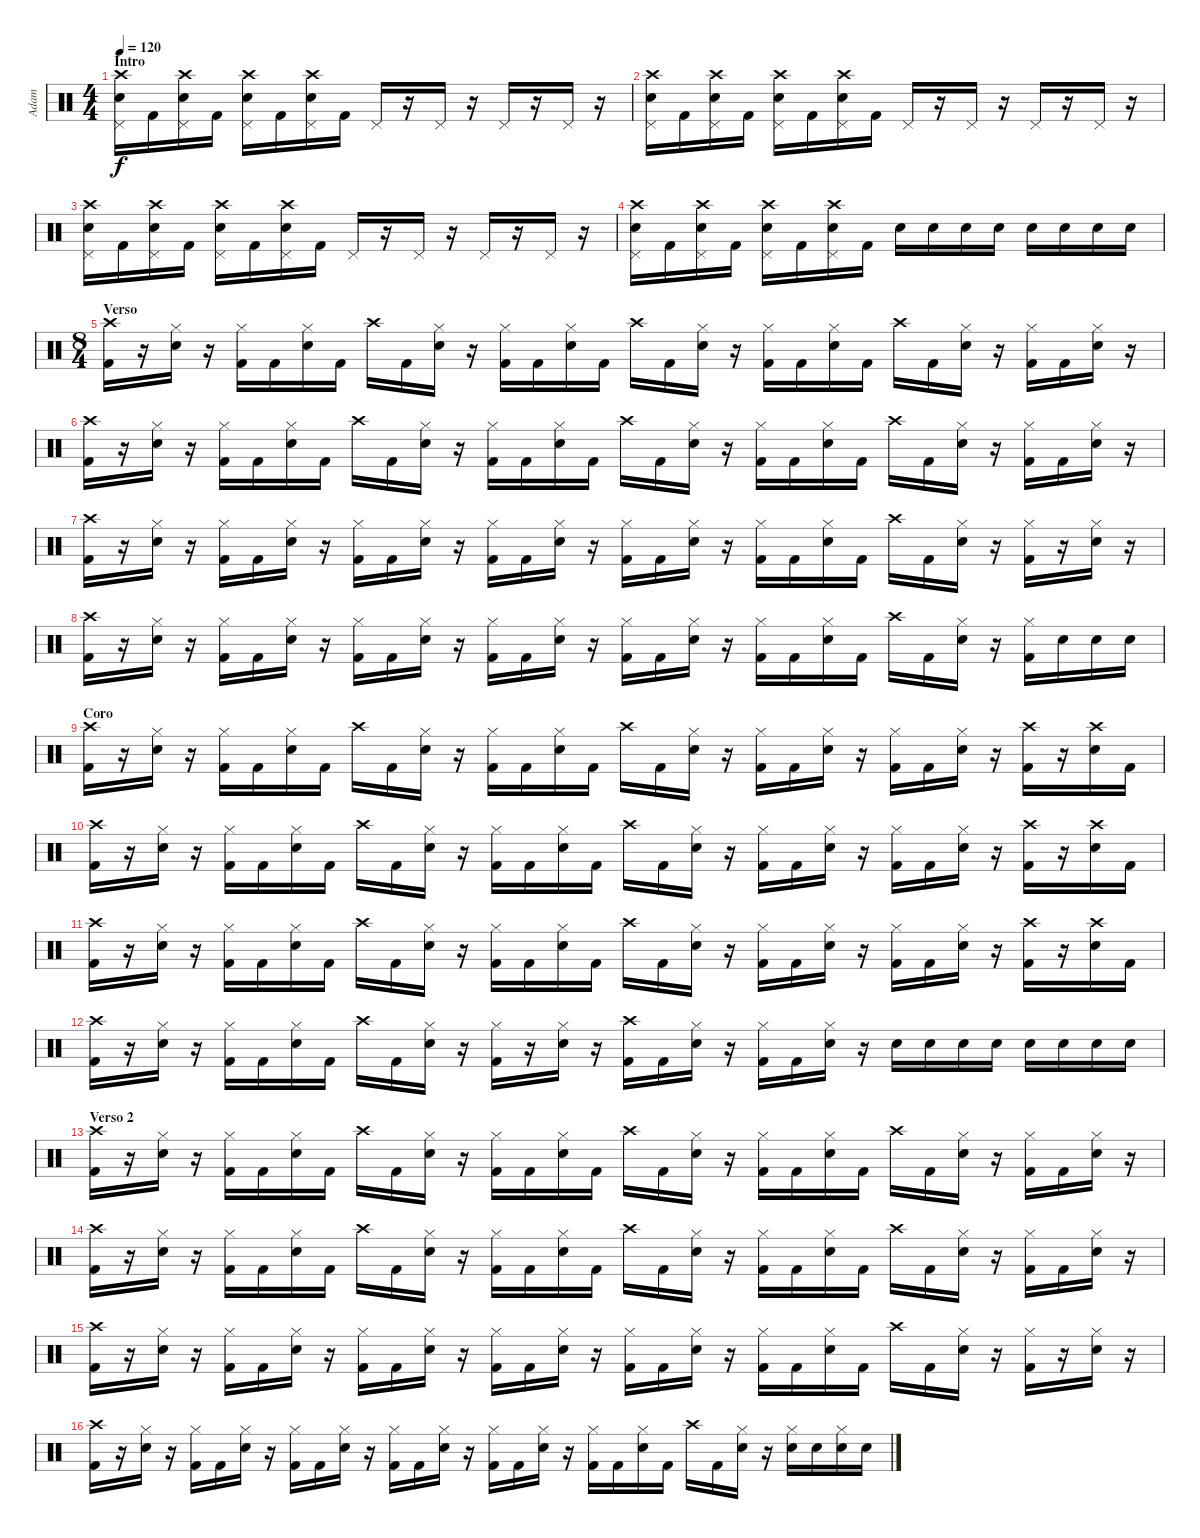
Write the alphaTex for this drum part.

\track ("Adam" "Adam") {instrument percussion}
\staff {score}
\articulation defaults
\ts (4 4)
\section ("" "Intro")
\tempo 120
\clef neutral
\ks c
("Crash high (hit)" "Snare (hit) 2" "Pedal Hi-Hat (hit)").16{dy f} "Kick (hit) 2".16 ("Crash high (hit)" "Snare (hit) 2" "Pedal Hi-Hat (hit)").16 "Kick (hit) 2".16 ("Crash high (hit)" "Snare (hit) 2" "Pedal Hi-Hat (hit)").16 "Kick (hit) 2".16 ("Crash high (hit)" "Snare (hit) 2" "Pedal Hi-Hat (hit)").16 "Kick (hit) 2".16 "Pedal Hi-Hat (hit)".16 r.16 "Pedal Hi-Hat (hit)".16 r.16 "Pedal Hi-Hat (hit)".16 r.16 "Pedal Hi-Hat (hit)".16 r.16 |
("Crash high (hit)" "Snare (hit) 2" "Pedal Hi-Hat (hit)").16 "Kick (hit) 2".16 ("Crash high (hit)" "Snare (hit) 2" "Pedal Hi-Hat (hit)").16 "Kick (hit) 2".16 ("Crash high (hit)" "Snare (hit) 2" "Pedal Hi-Hat (hit)").16 "Kick (hit) 2".16 ("Crash high (hit)" "Snare (hit) 2" "Pedal Hi-Hat (hit)").16 "Kick (hit) 2".16 "Pedal Hi-Hat (hit)".16 r.16 "Pedal Hi-Hat (hit)".16 r.16 "Pedal Hi-Hat (hit)".16 r.16 "Pedal Hi-Hat (hit)".16 r.16 |
("Crash high (hit)" "Snare (hit) 2" "Pedal Hi-Hat (hit)").16 "Kick (hit) 2".16 ("Crash high (hit)" "Snare (hit) 2" "Pedal Hi-Hat (hit)").16 "Kick (hit) 2".16 ("Crash high (hit)" "Snare (hit) 2" "Pedal Hi-Hat (hit)").16 "Kick (hit) 2".16 ("Crash high (hit)" "Snare (hit) 2" "Pedal Hi-Hat (hit)").16 "Kick (hit) 2".16 "Pedal Hi-Hat (hit)".16 r.16 "Pedal Hi-Hat (hit)".16 r.16 "Pedal Hi-Hat (hit)".16 r.16 "Pedal Hi-Hat (hit)".16 r.16 |
("Crash high (hit)" "Snare (hit) 2" "Pedal Hi-Hat (hit)").16 "Kick (hit) 2".16 ("Crash high (hit)" "Snare (hit) 2" "Pedal Hi-Hat (hit)").16 "Kick (hit) 2".16 ("Crash high (hit)" "Snare (hit) 2" "Pedal Hi-Hat (hit)").16 "Kick (hit) 2".16 ("Crash high (hit)" "Snare (hit) 2" "Pedal Hi-Hat (hit)").16 "Kick (hit) 2".16 "Snare (hit) 2".16 "Snare (hit) 2".16 "Snare (hit) 2".16 "Snare (hit) 2".16 "Snare (hit) 2".16 "Snare (hit) 2".16 "Snare (hit) 2".16 "Snare (hit) 2".16 |
\ts (8 4)
\section ("" "Verso")
("Crash high (hit)" "Kick (hit) 2").16 r.16 ("Hi-Hat (closed)" "Snare (hit) 2").16 r.16 ("Hi-Hat (closed)" "Kick (hit) 2").16 "Kick (hit) 2".16 ("Hi-Hat (closed)" "Snare (hit) 2").16 "Kick (hit) 2".16 "Crash high (hit)".16 "Kick (hit) 2".16 ("Hi-Hat (closed)" "Snare (hit) 2").16 r.16 ("Hi-Hat (closed)" "Kick (hit) 2").16 "Kick (hit) 2".16 ("Hi-Hat (closed)" "Snare (hit) 2").16 "Kick (hit) 2".16 "Crash high (hit)".16 "Kick (hit) 2".16 ("Hi-Hat (closed)" "Snare (hit) 2").16 r.16 ("Hi-Hat (closed)" "Kick (hit) 2").16 "Kick (hit) 2".16 ("Hi-Hat (closed)" "Snare (hit) 2").16 "Kick (hit) 2".16 "Crash high (hit)".16 "Kick (hit) 2".16 ("Hi-Hat (closed)" "Snare (hit) 2").16 r.16 ("Hi-Hat (closed)" "Kick (hit) 2").16 "Kick (hit) 2".16 ("Hi-Hat (closed)" "Snare (hit) 2").16 r.16 |
("Crash high (hit)" "Kick (hit) 2").16 r.16 ("Hi-Hat (closed)" "Snare (hit) 2").16 r.16 ("Hi-Hat (closed)" "Kick (hit) 2").16 "Kick (hit) 2".16 ("Hi-Hat (closed)" "Snare (hit) 2").16 "Kick (hit) 2".16 "Crash high (hit)".16 "Kick (hit) 2".16 ("Hi-Hat (closed)" "Snare (hit) 2").16 r.16 ("Hi-Hat (closed)" "Kick (hit) 2").16 "Kick (hit) 2".16 ("Hi-Hat (closed)" "Snare (hit) 2").16 "Kick (hit) 2".16 "Crash high (hit)".16 "Kick (hit) 2".16 ("Hi-Hat (closed)" "Snare (hit) 2").16 r.16 ("Hi-Hat (closed)" "Kick (hit) 2").16 "Kick (hit) 2".16 ("Hi-Hat (closed)" "Snare (hit) 2").16 "Kick (hit) 2".16 "Crash high (hit)".16 "Kick (hit) 2".16 ("Hi-Hat (closed)" "Snare (hit) 2").16 r.16 ("Hi-Hat (closed)" "Kick (hit) 2").16 "Kick (hit) 2".16 ("Hi-Hat (closed)" "Snare (hit) 2").16 r.16 |
("Crash high (hit)" "Kick (hit) 2").16 r.16 ("Hi-Hat (closed)" "Snare (hit) 2").16 r.16 ("Hi-Hat (closed)" "Kick (hit) 2").16 "Kick (hit) 2".16 ("Hi-Hat (closed)" "Snare (hit) 2").16 r.16 ("Hi-Hat (closed)" "Kick (hit) 2").16 "Kick (hit) 2".16 ("Hi-Hat (closed)" "Snare (hit) 2").16 r.16 ("Hi-Hat (closed)" "Kick (hit) 2").16 "Kick (hit) 2".16 ("Hi-Hat (closed)" "Snare (hit) 2").16 r.16 ("Hi-Hat (closed)" "Kick (hit) 2").16 "Kick (hit) 2".16 ("Hi-Hat (closed)" "Snare (hit) 2").16 r.16 ("Hi-Hat (closed)" "Kick (hit) 2").16 "Kick (hit) 2".16 ("Hi-Hat (closed)" "Snare (hit) 2").16 "Kick (hit) 2".16 "Crash high (hit)".16 "Kick (hit) 2".16 ("Hi-Hat (closed)" "Snare (hit) 2").16 r.16 ("Hi-Hat (closed)" "Kick (hit) 2").16 r.16 ("Hi-Hat (closed)" "Snare (hit) 2").16 r.16 |
("Crash high (hit)" "Kick (hit) 2").16 r.16 ("Hi-Hat (closed)" "Snare (hit) 2").16 r.16 ("Hi-Hat (closed)" "Kick (hit) 2").16 "Kick (hit) 2".16 ("Hi-Hat (closed)" "Snare (hit) 2").16 r.16 ("Hi-Hat (closed)" "Kick (hit) 2").16 "Kick (hit) 2".16 ("Hi-Hat (closed)" "Snare (hit) 2").16 r.16 ("Hi-Hat (closed)" "Kick (hit) 2").16 "Kick (hit) 2".16 ("Hi-Hat (closed)" "Snare (hit) 2").16 r.16 ("Hi-Hat (closed)" "Kick (hit) 2").16 "Kick (hit) 2".16 ("Hi-Hat (closed)" "Snare (hit) 2").16 r.16 ("Hi-Hat (closed)" "Kick (hit) 2").16 "Kick (hit) 2".16 ("Hi-Hat (closed)" "Snare (hit) 2").16 "Kick (hit) 2".16 "Crash high (hit)".16 "Kick (hit) 2".16 ("Hi-Hat (closed)" "Snare (hit) 2").16 r.16 ("Hi-Hat (closed)" "Kick (hit) 2").16 "Snare (hit) 2".16 "Snare (hit) 2".16 "Snare (hit) 2".16 |
\section ("" "Coro")
("Crash high (hit)" "Kick (hit) 2").16 r.16 ("Hi-Hat (closed)" "Snare (hit) 2").16 r.16 ("Hi-Hat (closed)" "Kick (hit) 2").16 "Kick (hit) 2".16 ("Hi-Hat (closed)" "Snare (hit) 2").16 "Kick (hit) 2".16 "Crash high (hit)".16 "Kick (hit) 2".16 ("Hi-Hat (closed)" "Snare (hit) 2").16 r.16 ("Hi-Hat (closed)" "Kick (hit) 2").16 "Kick (hit) 2".16 ("Hi-Hat (closed)" "Snare (hit) 2").16 "Kick (hit) 2".16 "Crash high (hit)".16 "Kick (hit) 2".16 ("Hi-Hat (closed)" "Snare (hit) 2").16 r.16 ("Hi-Hat (closed)" "Kick (hit) 2").16 "Kick (hit) 2".16 ("Hi-Hat (closed)" "Snare (hit) 2").16 r.16 ("Hi-Hat (closed)" "Kick (hit) 2").16 "Kick (hit) 2".16 ("Hi-Hat (closed)" "Snare (hit) 2").16 r.16 ("Crash high (hit)" "Kick (hit) 2").16 r.16 ("Crash high (hit)" "Snare (hit) 2").16 "Kick (hit) 2".16 |
("Crash high (hit)" "Kick (hit) 2").16 r.16 ("Hi-Hat (closed)" "Snare (hit) 2").16 r.16 ("Hi-Hat (closed)" "Kick (hit) 2").16 "Kick (hit) 2".16 ("Hi-Hat (closed)" "Snare (hit) 2").16 "Kick (hit) 2".16 "Crash high (hit)".16 "Kick (hit) 2".16 ("Hi-Hat (closed)" "Snare (hit) 2").16 r.16 ("Hi-Hat (closed)" "Kick (hit) 2").16 "Kick (hit) 2".16 ("Hi-Hat (closed)" "Snare (hit) 2").16 "Kick (hit) 2".16 "Crash high (hit)".16 "Kick (hit) 2".16 ("Hi-Hat (closed)" "Snare (hit) 2").16 r.16 ("Hi-Hat (closed)" "Kick (hit) 2").16 "Kick (hit) 2".16 ("Hi-Hat (closed)" "Snare (hit) 2").16 r.16 ("Hi-Hat (closed)" "Kick (hit) 2").16 "Kick (hit) 2".16 ("Hi-Hat (closed)" "Snare (hit) 2").16 r.16 ("Crash high (hit)" "Kick (hit) 2").16 r.16 ("Crash high (hit)" "Snare (hit) 2").16 "Kick (hit) 2".16 |
("Crash high (hit)" "Kick (hit) 2").16 r.16 ("Hi-Hat (closed)" "Snare (hit) 2").16 r.16 ("Hi-Hat (closed)" "Kick (hit) 2").16 "Kick (hit) 2".16 ("Hi-Hat (closed)" "Snare (hit) 2").16 "Kick (hit) 2".16 "Crash high (hit)".16 "Kick (hit) 2".16 ("Hi-Hat (closed)" "Snare (hit) 2").16 r.16 ("Hi-Hat (closed)" "Kick (hit) 2").16 "Kick (hit) 2".16 ("Hi-Hat (closed)" "Snare (hit) 2").16 "Kick (hit) 2".16 "Crash high (hit)".16 "Kick (hit) 2".16 ("Hi-Hat (closed)" "Snare (hit) 2").16 r.16 ("Hi-Hat (closed)" "Kick (hit) 2").16 "Kick (hit) 2".16 ("Hi-Hat (closed)" "Snare (hit) 2").16 r.16 ("Hi-Hat (closed)" "Kick (hit) 2").16 "Kick (hit) 2".16 ("Hi-Hat (closed)" "Snare (hit) 2").16 r.16 ("Crash high (hit)" "Kick (hit) 2").16 r.16 ("Crash high (hit)" "Snare (hit) 2").16 "Kick (hit) 2".16 |
("Crash high (hit)" "Kick (hit) 2").16 r.16 ("Hi-Hat (closed)" "Snare (hit) 2").16 r.16 ("Hi-Hat (closed)" "Kick (hit) 2").16 "Kick (hit) 2".16 ("Hi-Hat (closed)" "Snare (hit) 2").16 "Kick (hit) 2".16 "Crash high (hit)".16 "Kick (hit) 2".16 ("Hi-Hat (closed)" "Snare (hit) 2").16 r.16 ("Hi-Hat (closed)" "Kick (hit) 2").16 r.16 ("Hi-Hat (closed)" "Snare (hit) 2").16 r.16 ("Crash high (hit)" "Kick (hit) 2").16 "Kick (hit) 2".16 ("Hi-Hat (closed)" "Snare (hit) 2").16 r.16 ("Hi-Hat (closed)" "Kick (hit) 2").16 "Kick (hit) 2".16 ("Hi-Hat (closed)" "Snare (hit) 2").16 r.16 "Snare (hit) 2".16 "Snare (hit) 2".16 "Snare (hit) 2".16 "Snare (hit) 2".16 "Snare (hit) 2".16 "Snare (hit) 2".16 "Snare (hit) 2".16 "Snare (hit) 2".16 |
\section ("" "Verso 2")
("Crash high (hit)" "Kick (hit) 2").16 r.16 ("Hi-Hat (closed)" "Snare (hit) 2").16 r.16 ("Hi-Hat (closed)" "Kick (hit) 2").16 "Kick (hit) 2".16 ("Hi-Hat (closed)" "Snare (hit) 2").16 "Kick (hit) 2".16 "Crash high (hit)".16 "Kick (hit) 2".16 ("Hi-Hat (closed)" "Snare (hit) 2").16 r.16 ("Hi-Hat (closed)" "Kick (hit) 2").16 "Kick (hit) 2".16 ("Hi-Hat (closed)" "Snare (hit) 2").16 "Kick (hit) 2".16 "Crash high (hit)".16 "Kick (hit) 2".16 ("Hi-Hat (closed)" "Snare (hit) 2").16 r.16 ("Hi-Hat (closed)" "Kick (hit) 2").16 "Kick (hit) 2".16 ("Hi-Hat (closed)" "Snare (hit) 2").16 "Kick (hit) 2".16 "Crash high (hit)".16 "Kick (hit) 2".16 ("Hi-Hat (closed)" "Snare (hit) 2").16 r.16 ("Hi-Hat (closed)" "Kick (hit) 2").16 "Kick (hit) 2".16 ("Hi-Hat (closed)" "Snare (hit) 2").16 r.16 |
("Crash high (hit)" "Kick (hit) 2").16 r.16 ("Hi-Hat (closed)" "Snare (hit) 2").16 r.16 ("Hi-Hat (closed)" "Kick (hit) 2").16 "Kick (hit) 2".16 ("Hi-Hat (closed)" "Snare (hit) 2").16 "Kick (hit) 2".16 "Crash high (hit)".16 "Kick (hit) 2".16 ("Hi-Hat (closed)" "Snare (hit) 2").16 r.16 ("Hi-Hat (closed)" "Kick (hit) 2").16 "Kick (hit) 2".16 ("Hi-Hat (closed)" "Snare (hit) 2").16 "Kick (hit) 2".16 "Crash high (hit)".16 "Kick (hit) 2".16 ("Hi-Hat (closed)" "Snare (hit) 2").16 r.16 ("Hi-Hat (closed)" "Kick (hit) 2").16 "Kick (hit) 2".16 ("Hi-Hat (closed)" "Snare (hit) 2").16 "Kick (hit) 2".16 "Crash high (hit)".16 "Kick (hit) 2".16 ("Hi-Hat (closed)" "Snare (hit) 2").16 r.16 ("Hi-Hat (closed)" "Kick (hit) 2").16 "Kick (hit) 2".16 ("Hi-Hat (closed)" "Snare (hit) 2").16 r.16 |
("Crash high (hit)" "Kick (hit) 2").16 r.16 ("Hi-Hat (closed)" "Snare (hit) 2").16 r.16 ("Hi-Hat (closed)" "Kick (hit) 2").16 "Kick (hit) 2".16 ("Hi-Hat (closed)" "Snare (hit) 2").16 r.16 ("Hi-Hat (closed)" "Kick (hit) 2").16 "Kick (hit) 2".16 ("Hi-Hat (closed)" "Snare (hit) 2").16 r.16 ("Hi-Hat (closed)" "Kick (hit) 2").16 "Kick (hit) 2".16 ("Hi-Hat (closed)" "Snare (hit) 2").16 r.16 ("Hi-Hat (closed)" "Kick (hit) 2").16 "Kick (hit) 2".16 ("Hi-Hat (closed)" "Snare (hit) 2").16 r.16 ("Hi-Hat (closed)" "Kick (hit) 2").16 "Kick (hit) 2".16 ("Hi-Hat (closed)" "Snare (hit) 2").16 "Kick (hit) 2".16 "Crash high (hit)".16 "Kick (hit) 2".16 ("Hi-Hat (closed)" "Snare (hit) 2").16 r.16 ("Hi-Hat (closed)" "Kick (hit) 2").16 r.16 ("Hi-Hat (closed)" "Snare (hit) 2").16 r.16 |
("Crash high (hit)" "Kick (hit) 2").16 r.16 ("Hi-Hat (closed)" "Snare (hit) 2").16 r.16 ("Hi-Hat (closed)" "Kick (hit) 2").16 "Kick (hit) 2".16 ("Hi-Hat (closed)" "Snare (hit) 2").16 r.16 ("Hi-Hat (closed)" "Kick (hit) 2").16 "Kick (hit) 2".16 ("Hi-Hat (closed)" "Snare (hit) 2").16 r.16 ("Hi-Hat (closed)" "Kick (hit) 2").16 "Kick (hit) 2".16 ("Hi-Hat (closed)" "Snare (hit) 2").16 r.16 ("Hi-Hat (closed)" "Kick (hit) 2").16 "Kick (hit) 2".16 ("Hi-Hat (closed)" "Snare (hit) 2").16 r.16 ("Hi-Hat (closed)" "Kick (hit) 2").16 "Kick (hit) 2".16 ("Hi-Hat (closed)" "Snare (hit) 2").16 "Kick (hit) 2".16 "Crash high (hit)".16 "Kick (hit) 2".16 ("Hi-Hat (closed)" "Snare (hit) 2").16 r.16 ("Hi-Hat (closed)" "Snare (hit) 2").16 "Snare (hit) 2".16 ("Hi-Hat (closed)" "Snare (hit) 2").16 "Snare (hit) 2".16
